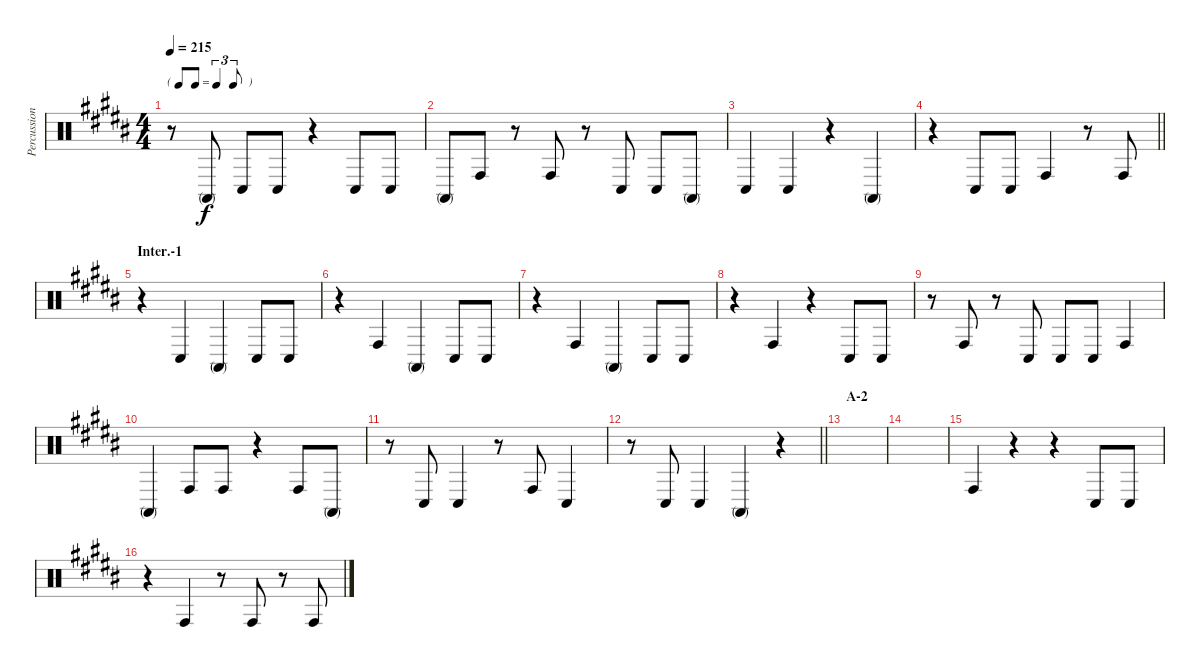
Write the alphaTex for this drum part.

\track ("Percussion A (Tainaka Ritsu)" "Percussion") {instrument percussion}
\staff {score}
\articulation defaults
\ts (4 4)
\tf triplet8th
\tempo 215
\clef neutral
\ks b
r.8{dy f} "Conga high (mute)".8 "Conga low (hit)".8 "Conga low (hit)".8 r.4 "Conga low (hit)".8 "Conga low (hit)".8 |
"Conga high (mute)".8 "Conga high (hit)".8 r.8 "Conga high (hit)".8 r.8 "Conga low (hit)".8 "Conga low (hit)".8 "Conga high (mute)".8 |
"Conga low (hit)".4 "Conga low (hit)".4 r.4 "Conga high (mute)".4 |
\barLineRight lightlight
r.4 "Conga low (hit)".8 "Conga low (hit)".8 "Conga high (hit)".4 r.8 "Conga high (hit)".8 |
\section ("" "Inter.-1")
r.4 "Conga low (hit)".4 "Conga high (mute)".4 "Conga low (hit)".8 "Conga low (hit)".8 |
r.4 "Conga high (hit)".4 "Conga high (mute)".4 "Conga low (hit)".8 "Conga low (hit)".8 |
r.4 "Conga high (hit)".4 "Conga high (mute)".4 "Conga low (hit)".8 "Conga low (hit)".8 |
r.4 "Conga high (hit)".4 r.4 "Conga low (hit)".8 "Conga low (hit)".8 |
r.8 "Conga high (hit)".8 r.8 "Conga low (hit)".8 "Conga low (hit)".8 "Conga low (hit)".8 "Conga high (hit)".4 |
"Conga high (mute)".4 "Conga high (hit)".8 "Conga high (hit)".8 r.4 "Conga high (hit)".8 "Conga high (mute)".8 |
r.8 "Conga low (hit)".8 "Conga low (hit)".4 r.8 "Conga high (hit)".8 "Conga low (hit)".4 |
\barLineRight lightlight
r.8 "Conga low (hit)".8 "Conga low (hit)".4 "Conga high (mute)".4 r.4 |
\section ("" "A-2")
|
|
"Conga high (hit)".4 r.4 r.4 "Conga low (hit)".8 "Conga low (hit)".8 |
r.4 "Conga high (hit)".4 r.8 "Conga high (hit)".8 r.8 "Conga high (hit)".8
